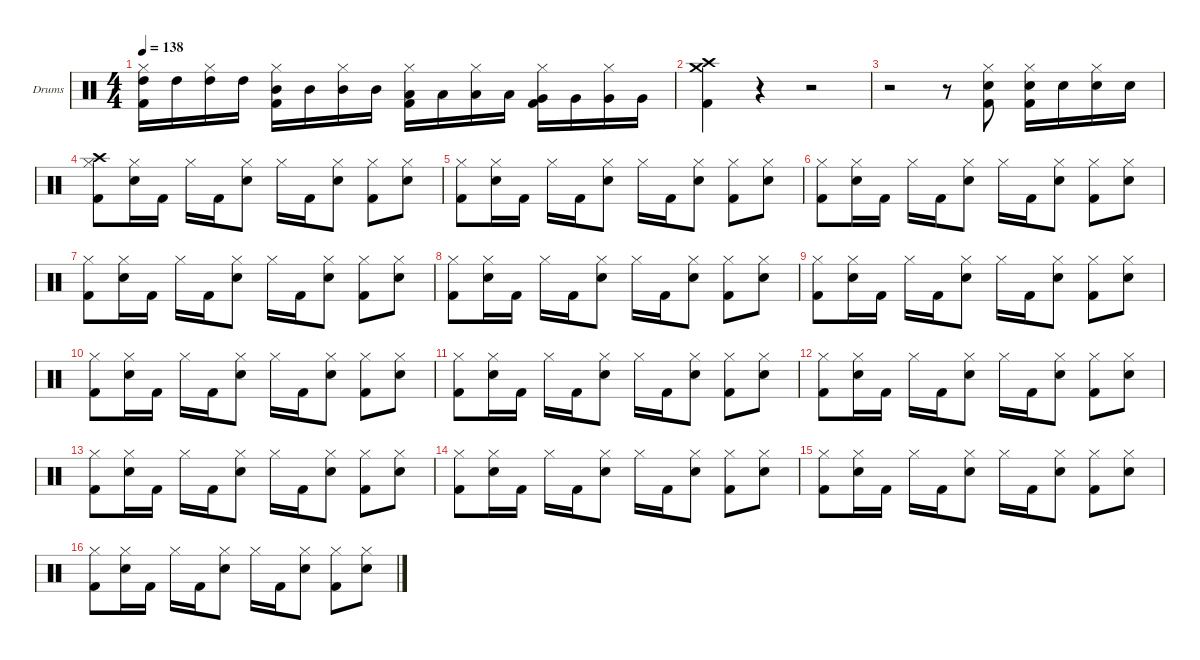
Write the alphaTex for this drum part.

\hideDynamics
\bracketExtendMode nobrackets
\firstSystemTrackNameOrientation horizontal
\otherSystemsTrackNameOrientation horizontal
\track ("Drumkit" "Drums") {instrument percussion}
\staff {score}
\articulation defaults
\ts (4 4)
\tempo 138
\clef neutral
\ks c
("High Tom (hit)" "Hi-Hat (closed)" "Kick (hit) 2").16{dy f beam Down} "High Tom (hit)".16{beam Down} ("High Tom (hit)" "Hi-Hat (closed)").16{beam Down} "High Tom (hit)".16{beam Down} ("Mid Tom (hit)" "Hi-Hat (closed)" "Kick (hit) 2").16{beam Down} "Mid Tom (hit)".16{beam Down} ("Mid Tom (hit)" "Hi-Hat (closed)").16{beam Down} "Mid Tom (hit)".16{beam Down} ("Low Tom (hit)" "Hi-Hat (closed)" "Kick (hit) 2").16{beam Down} "Low Tom (hit)".16{beam Down} ("Low Tom (hit)" "Hi-Hat (closed)").16{beam Down} "Low Tom (hit)".16{beam Down} ("Very Low Tom (hit)" "Hi-Hat (closed)" "Kick (hit) 2").16{beam Down} "Very Low Tom (hit)".16{beam Down} ("Very Low Tom (hit)" "Hi-Hat (closed)").16{beam Down} "Very Low Tom (hit)".16{beam Down} |
("Crash high (hit)" "Crash medium (hit)" "Kick (hit) 2").4{beam Down} r.4{beam Down} r.2{beam Down} |
r.2{beam Down} r.8{beam Down} ("Snare (hit) 2" "Hi-Hat (closed)" "Kick (hit) 2").8{beam Down} ("Snare (hit) 2" "Hi-Hat (closed)" "Kick (hit) 2").16{beam Down} "Snare (hit) 2".16{beam Down} ("Snare (hit) 2" "Hi-Hat (closed)").16{beam Down} "Snare (hit) 2".16{beam Down} |
("Crash high (hit)" "Hi-Hat (closed)" "Kick (hit) 2").8{beam Down} ("Snare (hit) 2" "Hi-Hat (closed)").16{beam Down} "Kick (hit) 2".16{beam Down} "Hi-Hat (closed)".16{beam Down} "Kick (hit) 2".16{beam Down} ("Snare (hit) 2" "Hi-Hat (closed)").8{beam Down} "Hi-Hat (closed)".16{beam Down} "Kick (hit) 2".16{beam Down} ("Snare (hit) 2" "Hi-Hat (closed)").8{beam Down} ("Hi-Hat (closed)" "Kick (hit) 2").8{beam Down} ("Snare (hit) 2" "Hi-Hat (closed)").8{beam Down} |
("Hi-Hat (closed)" "Kick (hit) 2").8{beam Down} ("Snare (hit) 2" "Hi-Hat (closed)").16{beam Down} "Kick (hit) 2".16{beam Down} "Hi-Hat (closed)".16{beam Down} "Kick (hit) 2".16{beam Down} ("Snare (hit) 2" "Hi-Hat (closed)").8{beam Down} "Hi-Hat (closed)".16{beam Down} "Kick (hit) 2".16{beam Down} ("Snare (hit) 2" "Hi-Hat (closed)").8{beam Down} ("Hi-Hat (closed)" "Kick (hit) 2").8{beam Down} ("Snare (hit) 2" "Hi-Hat (closed)").8{beam Down} |
("Hi-Hat (closed)" "Kick (hit) 2").8{beam Down} ("Snare (hit) 2" "Hi-Hat (closed)").16{beam Down} "Kick (hit) 2".16{beam Down} "Hi-Hat (closed)".16{beam Down} "Kick (hit) 2".16{beam Down} ("Snare (hit) 2" "Hi-Hat (closed)").8{beam Down} "Hi-Hat (closed)".16{beam Down} "Kick (hit) 2".16{beam Down} ("Snare (hit) 2" "Hi-Hat (closed)").8{beam Down} ("Hi-Hat (closed)" "Kick (hit) 2").8{beam Down} ("Snare (hit) 2" "Hi-Hat (closed)").8{beam Down} |
("Hi-Hat (closed)" "Kick (hit) 2").8{beam Down} ("Snare (hit) 2" "Hi-Hat (closed)").16{beam Down} "Kick (hit) 2".16{beam Down} "Hi-Hat (closed)".16{beam Down} "Kick (hit) 2".16{beam Down} ("Snare (hit) 2" "Hi-Hat (closed)").8{beam Down} "Hi-Hat (closed)".16{beam Down} "Kick (hit) 2".16{beam Down} ("Snare (hit) 2" "Hi-Hat (closed)").8{beam Down} ("Hi-Hat (closed)" "Kick (hit) 2").8{beam Down} ("Snare (hit) 2" "Hi-Hat (closed)").8{beam Down} |
("Hi-Hat (closed)" "Kick (hit) 2").8{beam Down} ("Snare (hit) 2" "Hi-Hat (closed)").16{beam Down} "Kick (hit) 2".16{beam Down} "Hi-Hat (closed)".16{beam Down} "Kick (hit) 2".16{beam Down} ("Snare (hit) 2" "Hi-Hat (closed)").8{beam Down} "Hi-Hat (closed)".16{beam Down} "Kick (hit) 2".16{beam Down} ("Snare (hit) 2" "Hi-Hat (closed)").8{beam Down} ("Hi-Hat (closed)" "Kick (hit) 2").8{beam Down} ("Snare (hit) 2" "Hi-Hat (closed)").8{beam Down} |
("Hi-Hat (closed)" "Kick (hit) 2").8{beam Down} ("Snare (hit) 2" "Hi-Hat (closed)").16{beam Down} "Kick (hit) 2".16{beam Down} "Hi-Hat (closed)".16{beam Down} "Kick (hit) 2".16{beam Down} ("Snare (hit) 2" "Hi-Hat (closed)").8{beam Down} "Hi-Hat (closed)".16{beam Down} "Kick (hit) 2".16{beam Down} ("Snare (hit) 2" "Hi-Hat (closed)").8{beam Down} ("Hi-Hat (closed)" "Kick (hit) 2").8{beam Down} ("Snare (hit) 2" "Hi-Hat (closed)").8{beam Down} |
("Hi-Hat (closed)" "Kick (hit) 2").8{beam Down} ("Snare (hit) 2" "Hi-Hat (closed)").16{beam Down} "Kick (hit) 2".16{beam Down} "Hi-Hat (closed)".16{beam Down} "Kick (hit) 2".16{beam Down} ("Snare (hit) 2" "Hi-Hat (closed)").8{beam Down} "Hi-Hat (closed)".16{beam Down} "Kick (hit) 2".16{beam Down} ("Snare (hit) 2" "Hi-Hat (closed)").8{beam Down} ("Hi-Hat (closed)" "Kick (hit) 2").8{beam Down} ("Snare (hit) 2" "Hi-Hat (closed)").8{beam Down} |
("Hi-Hat (closed)" "Kick (hit) 2").8{beam Down} ("Snare (hit) 2" "Hi-Hat (closed)").16{beam Down} "Kick (hit) 2".16{beam Down} "Hi-Hat (closed)".16{beam Down} "Kick (hit) 2".16{beam Down} ("Snare (hit) 2" "Hi-Hat (closed)").8{beam Down} "Hi-Hat (closed)".16{beam Down} "Kick (hit) 2".16{beam Down} ("Snare (hit) 2" "Hi-Hat (closed)").8{beam Down} ("Hi-Hat (closed)" "Kick (hit) 2").8{beam Down} ("Snare (hit) 2" "Hi-Hat (closed)").8{beam Down} |
("Hi-Hat (closed)" "Kick (hit) 2").8{beam Down} ("Snare (hit) 2" "Hi-Hat (closed)").16{beam Down} "Kick (hit) 2".16{beam Down} "Hi-Hat (closed)".16{beam Down} "Kick (hit) 2".16{beam Down} ("Snare (hit) 2" "Hi-Hat (closed)").8{beam Down} "Hi-Hat (closed)".16{beam Down} "Kick (hit) 2".16{beam Down} ("Snare (hit) 2" "Hi-Hat (closed)").8{beam Down} ("Hi-Hat (closed)" "Kick (hit) 2").8{beam Down} ("Snare (hit) 2" "Hi-Hat (closed)").8{beam Down} |
("Hi-Hat (closed)" "Kick (hit) 2").8{beam Down} ("Snare (hit) 2" "Hi-Hat (closed)").16{beam Down} "Kick (hit) 2".16{beam Down} "Hi-Hat (closed)".16{beam Down} "Kick (hit) 2".16{beam Down} ("Snare (hit) 2" "Hi-Hat (closed)").8{beam Down} "Hi-Hat (closed)".16{beam Down} "Kick (hit) 2".16{beam Down} ("Snare (hit) 2" "Hi-Hat (closed)").8{beam Down} ("Hi-Hat (closed)" "Kick (hit) 2").8{beam Down} ("Snare (hit) 2" "Hi-Hat (closed)").8{beam Down} |
("Hi-Hat (closed)" "Kick (hit) 2").8{beam Down} ("Snare (hit) 2" "Hi-Hat (closed)").16{beam Down} "Kick (hit) 2".16{beam Down} "Hi-Hat (closed)".16{beam Down} "Kick (hit) 2".16{beam Down} ("Snare (hit) 2" "Hi-Hat (closed)").8{beam Down} "Hi-Hat (closed)".16{beam Down} "Kick (hit) 2".16{beam Down} ("Snare (hit) 2" "Hi-Hat (closed)").8{beam Down} ("Hi-Hat (closed)" "Kick (hit) 2").8{beam Down} ("Snare (hit) 2" "Hi-Hat (closed)").8{beam Down} |
("Hi-Hat (closed)" "Kick (hit) 2").8{beam Down} ("Snare (hit) 2" "Hi-Hat (closed)").16{beam Down} "Kick (hit) 2".16{beam Down} "Hi-Hat (closed)".16{beam Down} "Kick (hit) 2".16{beam Down} ("Snare (hit) 2" "Hi-Hat (closed)").8{beam Down} "Hi-Hat (closed)".16{beam Down} "Kick (hit) 2".16{beam Down} ("Snare (hit) 2" "Hi-Hat (closed)").8{beam Down} ("Hi-Hat (closed)" "Kick (hit) 2").8{beam Down} ("Snare (hit) 2" "Hi-Hat (closed)").8{beam Down} |
("Hi-Hat (closed)" "Kick (hit) 2").8{beam Down} ("Snare (hit) 2" "Hi-Hat (closed)").16{beam Down} "Kick (hit) 2".16{beam Down} "Hi-Hat (closed)".16{beam Down} "Kick (hit) 2".16{beam Down} ("Snare (hit) 2" "Hi-Hat (closed)").8{beam Down} "Hi-Hat (closed)".16{beam Down} "Kick (hit) 2".16{beam Down} ("Snare (hit) 2" "Hi-Hat (closed)").8{beam Down} ("Hi-Hat (closed)" "Kick (hit) 2").8{beam Down} ("Snare (hit) 2" "Hi-Hat (closed)").8{beam Down}
